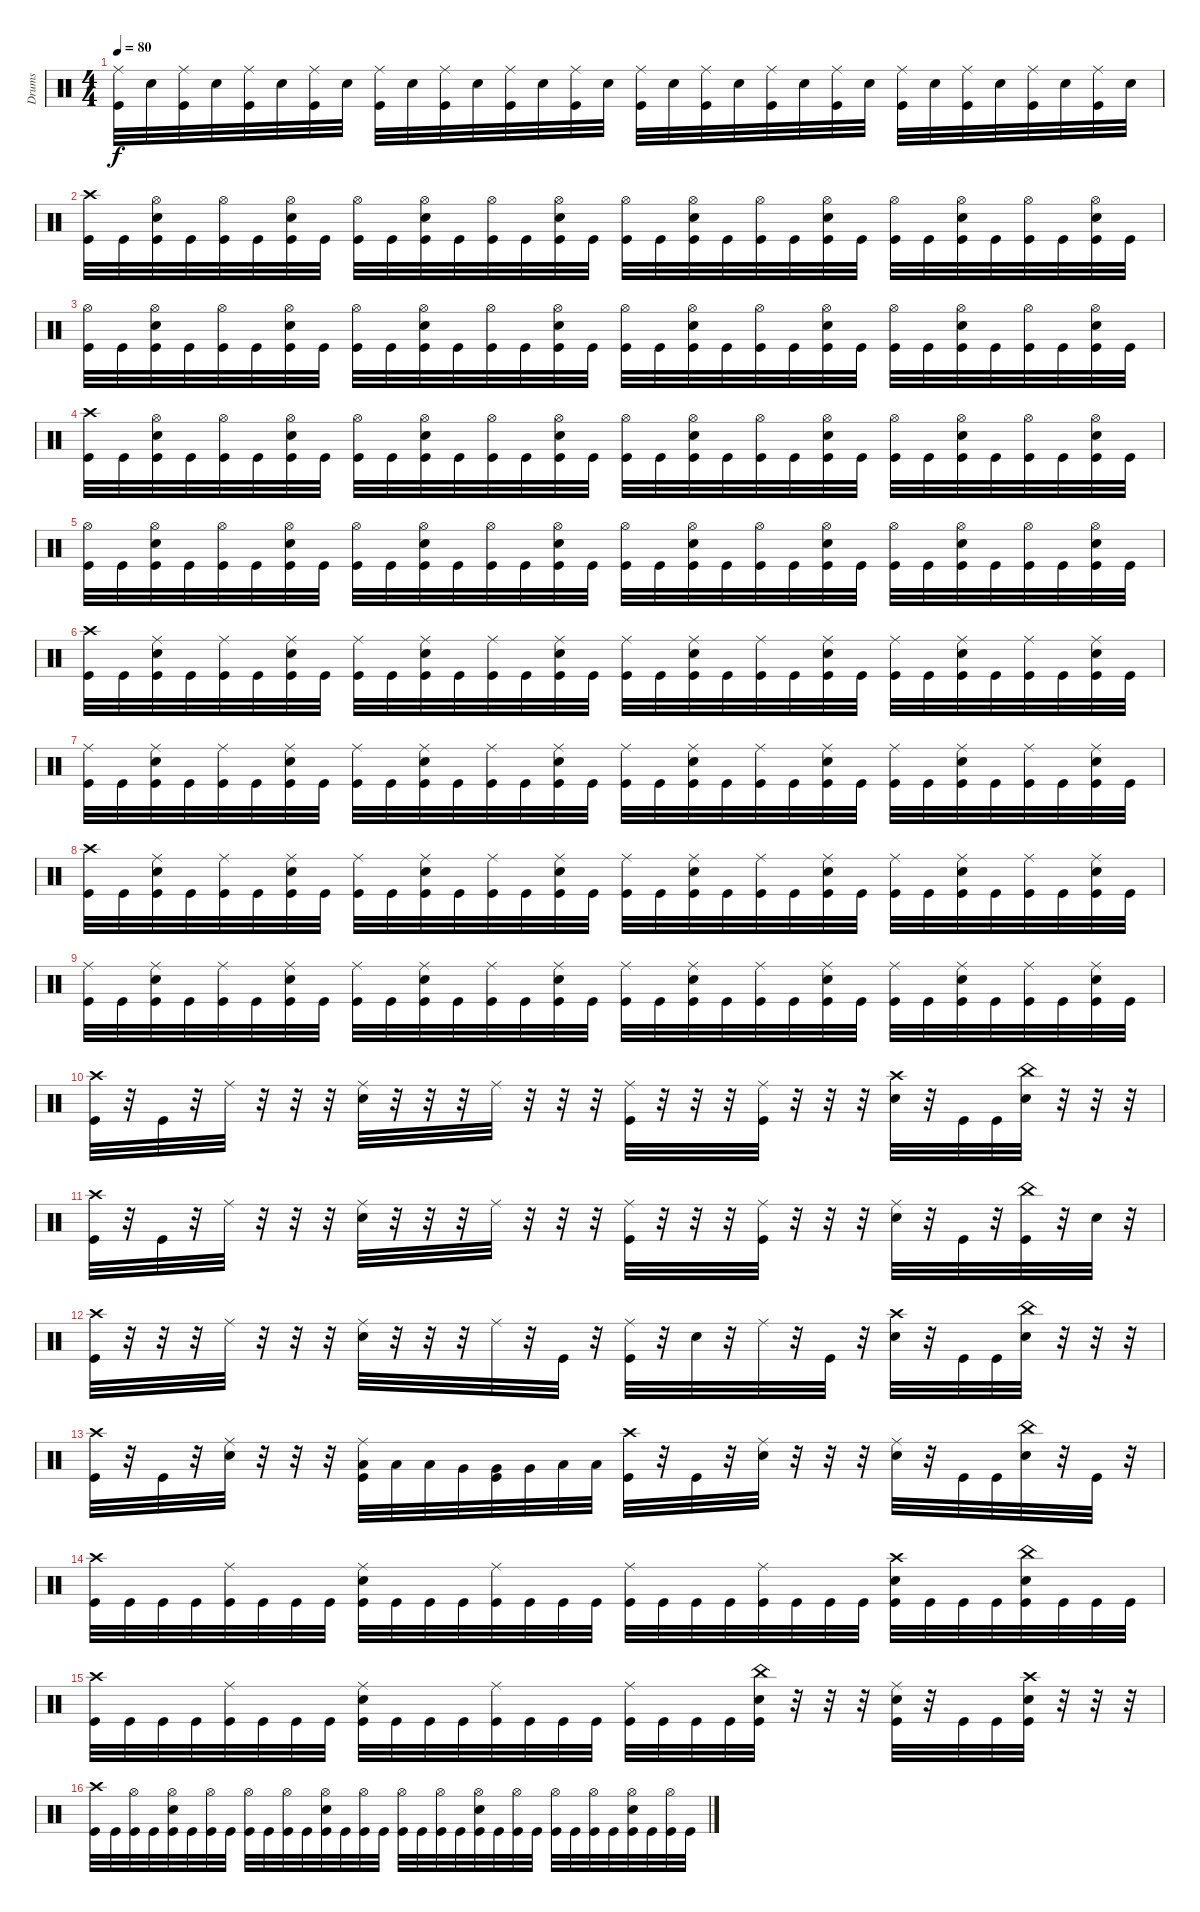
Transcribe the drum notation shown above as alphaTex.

\track ("Drums" "Drums") {instrument percussion}
\staff {score}
\articulation defaults
\ts (4 4)
\tempo 80
\clef neutral
\ks c
("Ride (middle)" "Kick (hit)").32{dy f} "Snare (hit) 2".32 ("Ride (middle)" "Kick (hit)").32 "Snare (hit) 2".32 ("Ride (middle)" "Kick (hit)").32 "Snare (hit) 2".32 ("Ride (middle)" "Kick (hit)").32 "Snare (hit) 2".32 ("Ride (middle)" "Kick (hit)").32 "Snare (hit) 2".32 ("Ride (middle)" "Kick (hit)").32 "Snare (hit) 2".32 ("Ride (middle)" "Kick (hit)").32 "Snare (hit) 2".32 ("Ride (middle)" "Kick (hit)").32 "Snare (hit) 2".32 ("Ride (middle)" "Kick (hit)").32 "Snare (hit) 2".32 ("Ride (middle)" "Kick (hit)").32 "Snare (hit) 2".32 ("Ride (middle)" "Kick (hit)").32 "Snare (hit) 2".32 ("Ride (middle)" "Kick (hit)").32 "Snare (hit) 2".32 ("Ride (middle)" "Kick (hit)").32 "Snare (hit) 2".32 ("Ride (middle)" "Kick (hit)").32 "Snare (hit) 2".32 ("Ride (middle)" "Kick (hit)").32 "Snare (hit) 2".32 ("Ride (middle)" "Kick (hit)").32 "Snare (hit) 2".32 |
("Crash high (hit)" "Kick (hit)").32 "Kick (hit)".32 ("Hi-Hat (open)" "Snare (hit) 2" "Kick (hit)").32 "Kick (hit)".32 ("Hi-Hat (open)" "Kick (hit)").32 "Kick (hit)".32 ("Hi-Hat (open)" "Snare (hit) 2" "Kick (hit)").32 "Kick (hit)".32 ("Hi-Hat (open)" "Kick (hit)").32 "Kick (hit)".32 ("Hi-Hat (open)" "Snare (hit) 2" "Kick (hit)").32 "Kick (hit)".32 ("Hi-Hat (open)" "Kick (hit)").32 "Kick (hit)".32 ("Hi-Hat (open)" "Snare (hit) 2" "Kick (hit)").32 "Kick (hit)".32 ("Hi-Hat (open)" "Kick (hit)").32 "Kick (hit)".32 ("Hi-Hat (open)" "Snare (hit) 2" "Kick (hit)").32 "Kick (hit)".32 ("Hi-Hat (open)" "Kick (hit)").32 "Kick (hit)".32 ("Hi-Hat (open)" "Snare (hit) 2" "Kick (hit)").32 "Kick (hit)".32 ("Hi-Hat (open)" "Kick (hit)").32 "Kick (hit)".32 ("Hi-Hat (open)" "Snare (hit) 2" "Kick (hit)").32 "Kick (hit)".32 ("Hi-Hat (open)" "Kick (hit)").32 "Kick (hit)".32 ("Hi-Hat (open)" "Snare (hit) 2" "Kick (hit)").32 "Kick (hit)".32 |
("Hi-Hat (open)" "Kick (hit)").32 "Kick (hit)".32 ("Hi-Hat (open)" "Snare (hit) 2" "Kick (hit)").32 "Kick (hit)".32 ("Hi-Hat (open)" "Kick (hit)").32 "Kick (hit)".32 ("Hi-Hat (open)" "Snare (hit) 2" "Kick (hit)").32 "Kick (hit)".32 ("Hi-Hat (open)" "Kick (hit)").32 "Kick (hit)".32 ("Hi-Hat (open)" "Snare (hit) 2" "Kick (hit)").32 "Kick (hit)".32 ("Hi-Hat (open)" "Kick (hit)").32 "Kick (hit)".32 ("Hi-Hat (open)" "Snare (hit) 2" "Kick (hit)").32 "Kick (hit)".32 ("Hi-Hat (open)" "Kick (hit)").32 "Kick (hit)".32 ("Hi-Hat (open)" "Snare (hit) 2" "Kick (hit)").32 "Kick (hit)".32 ("Hi-Hat (open)" "Kick (hit)").32 "Kick (hit)".32 ("Hi-Hat (open)" "Snare (hit) 2" "Kick (hit)").32 "Kick (hit)".32 ("Hi-Hat (open)" "Kick (hit)").32 "Kick (hit)".32 ("Hi-Hat (open)" "Snare (hit) 2" "Kick (hit)").32 "Kick (hit)".32 ("Hi-Hat (open)" "Kick (hit)").32 "Kick (hit)".32 ("Hi-Hat (open)" "Snare (hit) 2" "Kick (hit)").32 "Kick (hit)".32 |
("Crash high (hit)" "Kick (hit)").32 "Kick (hit)".32 ("Hi-Hat (open)" "Snare (hit) 2" "Kick (hit)").32 "Kick (hit)".32 ("Hi-Hat (open)" "Kick (hit)").32 "Kick (hit)".32 ("Hi-Hat (open)" "Snare (hit) 2" "Kick (hit)").32 "Kick (hit)".32 ("Hi-Hat (open)" "Kick (hit)").32 "Kick (hit)".32 ("Hi-Hat (open)" "Snare (hit) 2" "Kick (hit)").32 "Kick (hit)".32 ("Hi-Hat (open)" "Kick (hit)").32 "Kick (hit)".32 ("Hi-Hat (open)" "Snare (hit) 2" "Kick (hit)").32 "Kick (hit)".32 ("Hi-Hat (open)" "Kick (hit)").32 "Kick (hit)".32 ("Hi-Hat (open)" "Snare (hit) 2" "Kick (hit)").32 "Kick (hit)".32 ("Hi-Hat (open)" "Kick (hit)").32 "Kick (hit)".32 ("Hi-Hat (open)" "Snare (hit) 2" "Kick (hit)").32 "Kick (hit)".32 ("Hi-Hat (open)" "Kick (hit)").32 "Kick (hit)".32 ("Hi-Hat (open)" "Snare (hit) 2" "Kick (hit)").32 "Kick (hit)".32 ("Hi-Hat (open)" "Kick (hit)").32 "Kick (hit)".32 ("Hi-Hat (open)" "Snare (hit) 2" "Kick (hit)").32 "Kick (hit)".32 |
("Hi-Hat (open)" "Kick (hit)").32 "Kick (hit)".32 ("Hi-Hat (open)" "Snare (hit) 2" "Kick (hit)").32 "Kick (hit)".32 ("Hi-Hat (open)" "Kick (hit)").32 "Kick (hit)".32 ("Hi-Hat (open)" "Snare (hit) 2" "Kick (hit)").32 "Kick (hit)".32 ("Hi-Hat (open)" "Kick (hit)").32 "Kick (hit)".32 ("Hi-Hat (open)" "Snare (hit) 2" "Kick (hit)").32 "Kick (hit)".32 ("Hi-Hat (open)" "Kick (hit)").32 "Kick (hit)".32 ("Hi-Hat (open)" "Snare (hit) 2" "Kick (hit)").32 "Kick (hit)".32 ("Hi-Hat (open)" "Kick (hit)").32 "Kick (hit)".32 ("Hi-Hat (open)" "Snare (hit) 2" "Kick (hit)").32 "Kick (hit)".32 ("Hi-Hat (open)" "Kick (hit)").32 "Kick (hit)".32 ("Hi-Hat (open)" "Snare (hit) 2" "Kick (hit)").32 "Kick (hit)".32 ("Hi-Hat (open)" "Kick (hit)").32 "Kick (hit)".32 ("Hi-Hat (open)" "Snare (hit) 2" "Kick (hit)").32 "Kick (hit)".32 ("Hi-Hat (open)" "Kick (hit)").32 "Kick (hit)".32 ("Hi-Hat (open)" "Snare (hit) 2" "Kick (hit)").32 "Kick (hit)".32 |
("Crash high (hit)" "Kick (hit)").32 "Kick (hit)".32 ("Ride (middle)" "Snare (hit) 2" "Kick (hit)").32 "Kick (hit)".32 ("Ride (middle)" "Kick (hit)").32 "Kick (hit)".32 ("Ride (middle)" "Snare (hit) 2" "Kick (hit)").32 "Kick (hit)".32 ("Ride (middle)" "Kick (hit)").32 "Kick (hit)".32 ("Ride (middle)" "Snare (hit) 2" "Kick (hit)").32 "Kick (hit)".32 ("Ride (middle)" "Kick (hit)").32 "Kick (hit)".32 ("Ride (middle)" "Snare (hit) 2" "Kick (hit)").32 "Kick (hit)".32 ("Ride (middle)" "Kick (hit)").32 "Kick (hit)".32 ("Ride (middle)" "Snare (hit) 2" "Kick (hit)").32 "Kick (hit)".32 ("Ride (middle)" "Kick (hit)").32 "Kick (hit)".32 ("Ride (middle)" "Snare (hit) 2" "Kick (hit)").32 "Kick (hit)".32 ("Ride (middle)" "Kick (hit)").32 "Kick (hit)".32 ("Ride (middle)" "Snare (hit) 2" "Kick (hit)").32 "Kick (hit)".32 ("Ride (middle)" "Kick (hit)").32 "Kick (hit)".32 ("Ride (middle)" "Snare (hit) 2" "Kick (hit)").32 "Kick (hit)".32 |
("Ride (middle)" "Kick (hit)").32 "Kick (hit)".32 ("Ride (middle)" "Snare (hit) 2" "Kick (hit)").32 "Kick (hit)".32 ("Ride (middle)" "Kick (hit)").32 "Kick (hit)".32 ("Ride (middle)" "Snare (hit) 2" "Kick (hit)").32 "Kick (hit)".32 ("Ride (middle)" "Kick (hit)").32 "Kick (hit)".32 ("Ride (middle)" "Snare (hit) 2" "Kick (hit)").32 "Kick (hit)".32 ("Ride (middle)" "Kick (hit)").32 "Kick (hit)".32 ("Ride (middle)" "Snare (hit) 2" "Kick (hit)").32 "Kick (hit)".32 ("Ride (middle)" "Kick (hit)").32 "Kick (hit)".32 ("Ride (middle)" "Snare (hit) 2" "Kick (hit)").32 "Kick (hit)".32 ("Ride (middle)" "Kick (hit)").32 "Kick (hit)".32 ("Ride (middle)" "Snare (hit) 2" "Kick (hit)").32 "Kick (hit)".32 ("Ride (middle)" "Kick (hit)").32 "Kick (hit)".32 ("Ride (middle)" "Snare (hit) 2" "Kick (hit)").32 "Kick (hit)".32 ("Ride (middle)" "Kick (hit)").32 "Kick (hit)".32 ("Ride (middle)" "Snare (hit) 2" "Kick (hit)").32 "Kick (hit)".32 |
("Crash high (hit)" "Kick (hit)").32 "Kick (hit)".32 ("Ride (middle)" "Snare (hit) 2" "Kick (hit)").32 "Kick (hit)".32 ("Ride (middle)" "Kick (hit)").32 "Kick (hit)".32 ("Ride (middle)" "Snare (hit) 2" "Kick (hit)").32 "Kick (hit)".32 ("Ride (middle)" "Kick (hit)").32 "Kick (hit)".32 ("Ride (middle)" "Snare (hit) 2" "Kick (hit)").32 "Kick (hit)".32 ("Ride (middle)" "Kick (hit)").32 "Kick (hit)".32 ("Ride (middle)" "Snare (hit) 2" "Kick (hit)").32 "Kick (hit)".32 ("Ride (middle)" "Kick (hit)").32 "Kick (hit)".32 ("Ride (middle)" "Snare (hit) 2" "Kick (hit)").32 "Kick (hit)".32 ("Ride (middle)" "Kick (hit)").32 "Kick (hit)".32 ("Ride (middle)" "Snare (hit) 2" "Kick (hit)").32 "Kick (hit)".32 ("Ride (middle)" "Kick (hit)").32 "Kick (hit)".32 ("Ride (middle)" "Snare (hit) 2" "Kick (hit)").32 "Kick (hit)".32 ("Ride (middle)" "Kick (hit)").32 "Kick (hit)".32 ("Ride (middle)" "Snare (hit) 2" "Kick (hit)").32 "Kick (hit)".32 |
("Ride (middle)" "Kick (hit)").32 "Kick (hit)".32 ("Ride (middle)" "Snare (hit) 2" "Kick (hit)").32 "Kick (hit)".32 ("Ride (middle)" "Kick (hit)").32 "Kick (hit)".32 ("Ride (middle)" "Snare (hit) 2" "Kick (hit)").32 "Kick (hit)".32 ("Ride (middle)" "Kick (hit)").32 "Kick (hit)".32 ("Ride (middle)" "Snare (hit) 2" "Kick (hit)").32 "Kick (hit)".32 ("Ride (middle)" "Kick (hit)").32 "Kick (hit)".32 ("Ride (middle)" "Snare (hit) 2" "Kick (hit)").32 "Kick (hit)".32 ("Ride (middle)" "Kick (hit)").32 "Kick (hit)".32 ("Ride (middle)" "Snare (hit) 2" "Kick (hit)").32 "Kick (hit)".32 ("Ride (middle)" "Kick (hit)").32 "Kick (hit)".32 ("Ride (middle)" "Snare (hit) 2" "Kick (hit)").32 "Kick (hit)".32 ("Ride (middle)" "Kick (hit)").32 "Kick (hit)".32 ("Ride (middle)" "Snare (hit) 2" "Kick (hit)").32 "Kick (hit)".32 ("Ride (middle)" "Kick (hit)").32 "Kick (hit)".32 ("Ride (middle)" "Snare (hit) 2" "Kick (hit)").32 "Kick (hit)".32 |
("Crash high (hit)" "Kick (hit)").32 r.32 "Kick (hit)".32 r.32 "Ride (middle)".32 r.32 r.32 r.32 ("Ride (middle)" "Snare (hit) 2").32 r.32 r.32 r.32 "Ride (middle)".32 r.32 r.32 r.32 ("Ride (middle)" "Kick (hit)").32 r.32 r.32 r.32 ("Ride (middle)" "Kick (hit)").32 r.32 r.32 r.32 ("Crash high (hit)" "Snare (hit) 2").32 r.32 "Kick (hit)".32 "Kick (hit)".32 ("China (hit)" "Snare (hit) 2").32 r.32 r.32 r.32 |
("Crash high (hit)" "Kick (hit)").32 r.32 "Kick (hit)".32 r.32 "Ride (middle)".32 r.32 r.32 r.32 ("Ride (middle)" "Snare (hit) 2").32 r.32 r.32 r.32 "Ride (middle)".32 r.32 r.32 r.32 ("Ride (middle)" "Kick (hit)").32 r.32 r.32 r.32 ("Ride (middle)" "Kick (hit)").32 r.32 r.32 r.32 ("Ride (middle)" "Snare (hit) 2").32 r.32 "Kick (hit)".32 r.32 ("China (hit)" "Kick (hit)").32 r.32 "Snare (hit) 2".32 r.32 |
("Crash high (hit)" "Kick (hit)").32 r.32 r.32 r.32 "Ride (middle)".32 r.32 r.32 r.32 ("Ride (middle)" "Snare (hit) 2").32 r.32 r.32 r.32 "Ride (middle)".32 r.32 "Kick (hit)".32 r.32 ("Ride (middle)" "Kick (hit)").32 r.32 "Snare (hit) 2".32 r.32 "Ride (middle)".32 r.32 "Kick (hit)".32 r.32 ("Crash high (hit)" "Snare (hit) 2").32 r.32 "Kick (hit)".32 "Kick (hit)".32 ("China (hit)" "Snare (hit) 2").32 r.32 r.32 r.32 |
("Crash high (hit)" "Kick (hit)").32 r.32 "Kick (hit)".32 r.32 ("Ride (middle)" "Snare (hit) 2").32 r.32 r.32 r.32 ("Ride (middle)" "Low Tom (hit)" "Kick (hit)").32 "Low Tom (hit)".32 "Low Tom (hit)".32 "Very Low Tom (hit)".32 ("Very Low Tom (hit)" "Kick (hit)").32 "Very Low Tom (hit)".32 "Low Floor Tom (hit)".32 "Low Floor Tom (hit)".32 ("Crash high (hit)" "Kick (hit)").32 r.32 "Kick (hit)".32 r.32 ("Ride (middle)" "Snare (hit) 2").32 r.32 r.32 r.32 ("Ride (middle)" "Snare (hit) 2").32 r.32 "Kick (hit)".32 "Kick (hit)".32 ("China (hit)" "Snare (hit) 2").32 r.32 "Kick (hit)".32 r.32 |
("Crash high (hit)" "Kick (hit)").32 "Kick (hit)".32 "Kick (hit)".32 "Kick (hit)".32 ("Ride (middle)" "Kick (hit)").32 "Kick (hit)".32 "Kick (hit)".32 "Kick (hit)".32 ("Ride (middle)" "Snare (hit) 2" "Kick (hit)").32 "Kick (hit)".32 "Kick (hit)".32 "Kick (hit)".32 ("Ride (middle)" "Kick (hit)").32 "Kick (hit)".32 "Kick (hit)".32 "Kick (hit)".32 ("Ride (middle)" "Kick (hit)").32 "Kick (hit)".32 "Kick (hit)".32 "Kick (hit)".32 ("Ride (middle)" "Kick (hit)").32 "Kick (hit)".32 "Kick (hit)".32 "Kick (hit)".32 ("Crash high (hit)" "Snare (hit) 2" "Kick (hit)").32 "Kick (hit)".32 "Kick (hit)".32 "Kick (hit)".32 ("China (hit)" "Snare (hit) 2" "Kick (hit)").32 "Kick (hit)".32 "Kick (hit)".32 "Kick (hit)".32 |
("Crash high (hit)" "Kick (hit)").32 "Kick (hit)".32 "Kick (hit)".32 "Kick (hit)".32 ("Ride (middle)" "Kick (hit)").32 "Kick (hit)".32 "Kick (hit)".32 "Kick (hit)".32 ("Ride (middle)" "Snare (hit) 2" "Kick (hit)").32 "Kick (hit)".32 "Kick (hit)".32 "Kick (hit)".32 ("Ride (middle)" "Kick (hit)").32 "Kick (hit)".32 "Kick (hit)".32 "Kick (hit)".32 ("Ride (middle)" "Kick (hit)").32 "Kick (hit)".32 "Kick (hit)".32 "Kick (hit)".32 ("China (hit)" "Snare (hit) 2" "Kick (hit)").32 r.32 r.32 r.32 ("Ride (middle)" "Snare (hit) 2" "Kick (hit)").32 r.32 "Kick (hit)".32 "Kick (hit)".32 ("Crash high (hit)" "Snare (hit) 2" "Kick (hit)").32 r.32 r.32 r.32 |
("Crash high (hit)" "Kick (hit)").32 "Kick (hit)".32 ("Hi-Hat (open)" "Kick (hit)").32 "Kick (hit)".32 ("Hi-Hat (open)" "Snare (hit) 2" "Kick (hit)").32 "Kick (hit)".32 ("Hi-Hat (open)" "Kick (hit)").32 "Kick (hit)".32 ("Hi-Hat (open)" "Kick (hit)").32 "Kick (hit)".32 ("Hi-Hat (open)" "Kick (hit)").32 "Kick (hit)".32 ("Hi-Hat (open)" "Snare (hit) 2" "Kick (hit)").32 "Kick (hit)".32 ("Hi-Hat (open)" "Kick (hit)").32 "Kick (hit)".32 ("Hi-Hat (open)" "Kick (hit)").32 "Kick (hit)".32 ("Hi-Hat (open)" "Kick (hit)").32 "Kick (hit)".32 ("Hi-Hat (open)" "Snare (hit) 2" "Kick (hit)").32 "Kick (hit)".32 ("Hi-Hat (open)" "Kick (hit)").32 "Kick (hit)".32 ("Hi-Hat (open)" "Kick (hit)").32 "Kick (hit)".32 ("Hi-Hat (open)" "Kick (hit)").32 "Kick (hit)".32 ("Hi-Hat (open)" "Snare (hit) 2" "Kick (hit)").32 "Kick (hit)".32 ("Hi-Hat (open)" "Kick (hit)").32 "Kick (hit)".32
